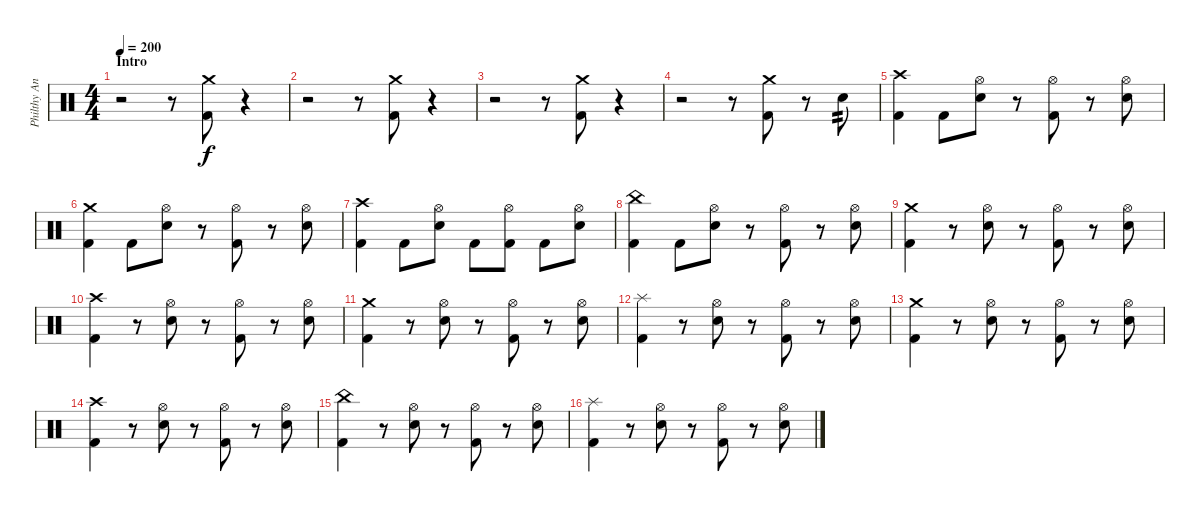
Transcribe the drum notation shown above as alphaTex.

\track ("Philthy Animal Taylor" "Philthy An") {instrument percussion}
\staff {score}
\articulation defaults
\ts (4 4)
\section ("" "Intro")
\tempo 200
\clef neutral
\ks c
r.2{dy f} r.8 ("Crash medium (hit)" "Kick (hit) 2").8 r.4 |
r.2 r.8 ("Crash medium (hit)" "Kick (hit) 2").8 r.4 |
r.2 r.8 ("Crash medium (hit)" "Kick (hit) 2").8 r.4 |
r.2 r.8 ("Crash medium (hit)" "Kick (hit) 2").8 r.8 "Snare (hit) 2".8{tp 2} |
("Crash high (hit)" "Kick (hit) 2").4 "Kick (hit) 2".8 ("Hi-Hat (open)" "Snare (hit) 2").8 r.8 ("Hi-Hat (open)" "Kick (hit) 2").8 r.8 ("Hi-Hat (open)" "Snare (hit) 2").8 |
("Crash medium (hit)" "Kick (hit) 2").4 "Kick (hit) 2".8 ("Hi-Hat (open)" "Snare (hit) 2").8 r.8 ("Hi-Hat (open)" "Kick (hit) 2").8 r.8 ("Hi-Hat (open)" "Snare (hit) 2").8 |
("Crash high (hit)" "Kick (hit) 2").4 "Kick (hit) 2".8 ("Hi-Hat (open)" "Snare (hit) 2").8 "Kick (hit) 2".8 ("Hi-Hat (open)" "Kick (hit) 2").8 "Kick (hit) 2".8 ("Hi-Hat (open)" "Snare (hit) 2").8 |
("China (hit)" "Kick (hit) 2").4 "Kick (hit) 2".8 ("Hi-Hat (open)" "Snare (hit) 2").8 r.8 ("Hi-Hat (open)" "Kick (hit) 2").8 r.8 ("Hi-Hat (open)" "Snare (hit) 2").8 |
("Crash medium (hit)" "Kick (hit) 2").4 r.8 ("Hi-Hat (open)" "Snare (hit) 2").8 r.8 ("Hi-Hat (open)" "Kick (hit) 2").8 r.8 ("Hi-Hat (open)" "Snare (hit) 2").8 |
("Crash high (hit)" "Kick (hit) 2").4 r.8 ("Hi-Hat (open)" "Snare (hit) 2").8 r.8 ("Hi-Hat (open)" "Kick (hit) 2").8 r.8 ("Hi-Hat (open)" "Snare (hit) 2").8 |
("Crash medium (hit)" "Kick (hit) 2").4 r.8 ("Hi-Hat (open)" "Snare (hit) 2").8 r.8 ("Hi-Hat (open)" "Kick (hit) 2").8 r.8 ("Hi-Hat (open)" "Snare (hit) 2").8 |
("Splash (hit)" "Kick (hit) 2").4 r.8 ("Hi-Hat (open)" "Snare (hit) 2").8 r.8 ("Hi-Hat (open)" "Kick (hit) 2").8 r.8 ("Hi-Hat (open)" "Snare (hit) 2").8 |
("Crash medium (hit)" "Kick (hit) 2").4 r.8 ("Hi-Hat (open)" "Snare (hit) 2").8 r.8 ("Hi-Hat (open)" "Kick (hit) 2").8 r.8 ("Hi-Hat (open)" "Snare (hit) 2").8 |
("Crash high (hit)" "Kick (hit) 2").4 r.8 ("Hi-Hat (open)" "Snare (hit) 2").8 r.8 ("Hi-Hat (open)" "Kick (hit) 2").8 r.8 ("Hi-Hat (open)" "Snare (hit) 2").8 |
("China (hit)" "Kick (hit) 2").4 r.8 ("Hi-Hat (open)" "Snare (hit) 2").8 r.8 ("Hi-Hat (open)" "Kick (hit) 2").8 r.8 ("Hi-Hat (open)" "Snare (hit) 2").8 |
("Splash (hit)" "Kick (hit) 2").4 r.8 ("Hi-Hat (open)" "Snare (hit) 2").8 r.8 ("Hi-Hat (open)" "Kick (hit) 2").8 r.8 ("Hi-Hat (open)" "Snare (hit) 2").8
